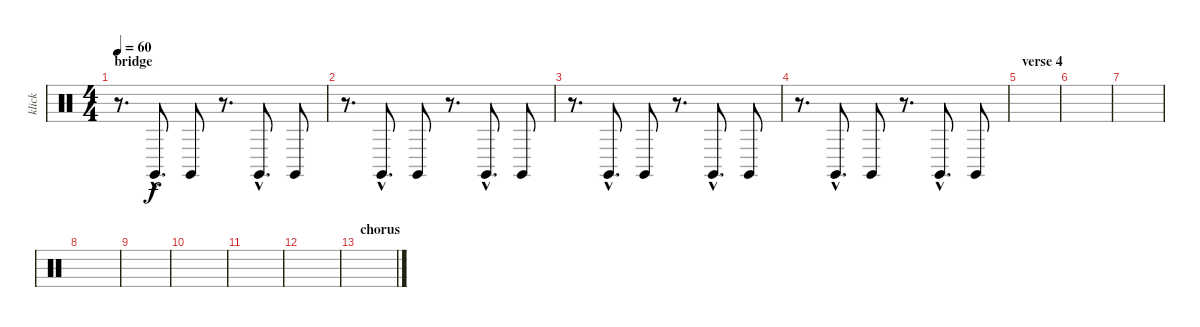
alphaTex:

\track ("klick" "klick") {instrument percussion}
\staff {score}
\articulation defaults
\ts (4 4)
\section ("" "bridge")
\tempo 60
\clef neutral
\ks c
r.8{d dy f} "Claves (hit)"{hac}.8{d} "Claves (hit)".8 r.8{d} "Claves (hit)"{hac}.8{d} "Claves (hit)".8 |
r.8{d} "Claves (hit)"{hac}.8{d} "Claves (hit)".8 r.8{d} "Claves (hit)"{hac}.8{d} "Claves (hit)".8 |
r.8{d} "Claves (hit)"{hac}.8{d} "Claves (hit)".8 r.8{d} "Claves (hit)"{hac}.8{d} "Claves (hit)".8 |
r.8{d} "Claves (hit)"{hac}.8{d} "Claves (hit)".8 r.8{d} "Claves (hit)"{hac}.8{d} "Claves (hit)".8 |
\section ("" "verse 4")
|
|
|
|
|
|
|
|
\section ("" "chorus")
